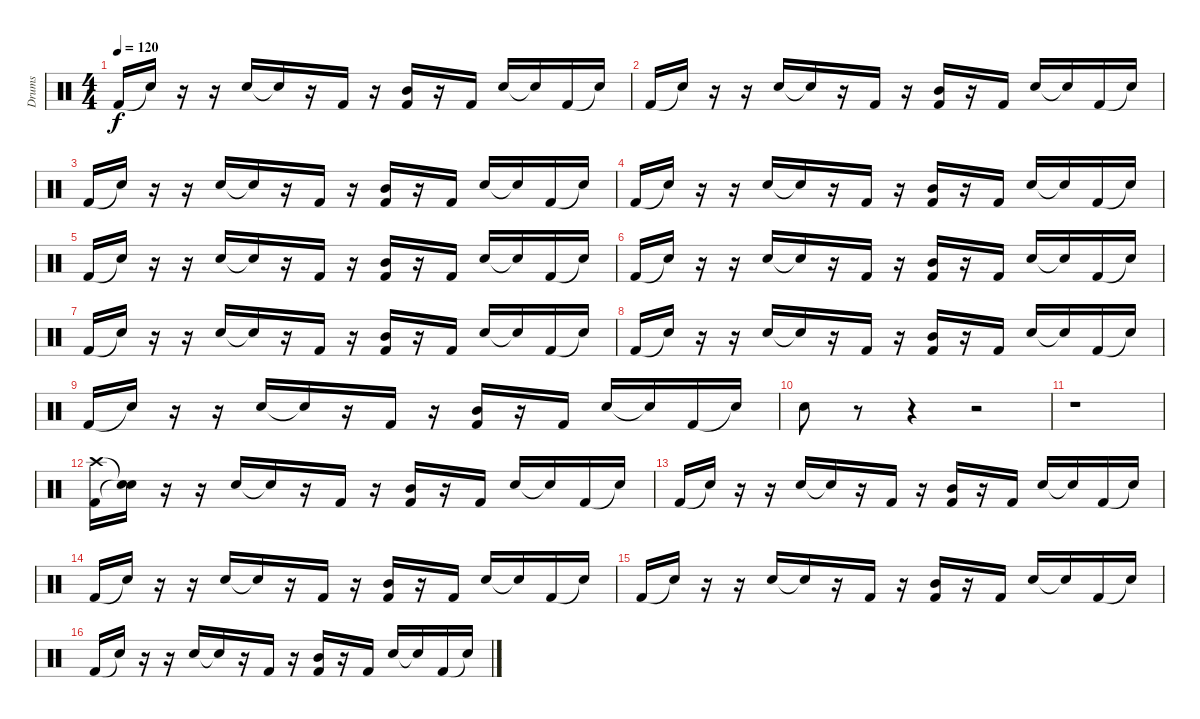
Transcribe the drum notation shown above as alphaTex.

\track ("Drums" "Drums") {instrument percussion}
\staff {score}
\articulation defaults
\ts (4 4)
\tempo 120
\clef neutral
\ks c "Kick (hit) 2".16{dy f} "Snare (hit)"{t}.16
r.16 r.16 "Snare (hit) 2".16 "Snare (hit)"{t}.16 r.16 "Kick (hit) 2".16 r.16 ("Mid Tom (hit)" "Kick (hit) 2").16 r.16 "Kick (hit) 2".16 "Snare (hit) 2".16 "Snare (hit)"{t}.16 "Kick (hit) 2".16 "Snare (hit)"{t}.16 |
"Kick (hit) 2".16 "Snare (hit)"{t}.16 r.16 r.16 "Snare (hit) 2".16 "Snare (hit)"{t}.16 r.16 "Kick (hit) 2".16 r.16 ("Mid Tom (hit)" "Kick (hit) 2").16 r.16 "Kick (hit) 2".16 "Snare (hit) 2".16 "Snare (hit)"{t}.16 "Kick (hit) 2".16 "Snare (hit)"{t}.16 |
"Kick (hit) 2".16 "Snare (hit)"{t}.16 r.16 r.16 "Snare (hit) 2".16 "Snare (hit)"{t}.16 r.16 "Kick (hit) 2".16 r.16 ("Mid Tom (hit)" "Kick (hit) 2").16 r.16 "Kick (hit) 2".16 "Snare (hit) 2".16 "Snare (hit)"{t}.16 "Kick (hit) 2".16 "Snare (hit)"{t}.16 |
"Kick (hit) 2".16 "Snare (hit)"{t}.16 r.16 r.16 "Snare (hit) 2".16 "Snare (hit)"{t}.16 r.16 "Kick (hit) 2".16 r.16 ("Mid Tom (hit)" "Kick (hit) 2").16 r.16 "Kick (hit) 2".16 "Snare (hit) 2".16 "Snare (hit)"{t}.16 "Kick (hit) 2".16 "Snare (hit)"{t}.16 |
"Kick (hit) 2".16 "Snare (hit)"{t}.16 r.16 r.16 "Snare (hit) 2".16 "Snare (hit)"{t}.16 r.16 "Kick (hit) 2".16 r.16 ("Mid Tom (hit)" "Kick (hit) 2").16 r.16 "Kick (hit) 2".16 "Snare (hit) 2".16 "Snare (hit)"{t}.16 "Kick (hit) 2".16 "Snare (hit)"{t}.16 |
"Kick (hit) 2".16 "Snare (hit)"{t}.16 r.16 r.16 "Snare (hit) 2".16 "Snare (hit)"{t}.16 r.16 "Kick (hit) 2".16 r.16 ("Mid Tom (hit)" "Kick (hit) 2").16 r.16 "Kick (hit) 2".16 "Snare (hit) 2".16 "Snare (hit)"{t}.16 "Kick (hit) 2".16 "Snare (hit)"{t}.16 |
"Kick (hit) 2".16 "Snare (hit)"{t}.16 r.16 r.16 "Snare (hit) 2".16 "Snare (hit)"{t}.16 r.16 "Kick (hit) 2".16 r.16 ("Mid Tom (hit)" "Kick (hit) 2").16 r.16 "Kick (hit) 2".16 "Snare (hit) 2".16 "Snare (hit)"{t}.16 "Kick (hit) 2".16 "Snare (hit)"{t}.16 |
"Kick (hit) 2".16 "Snare (hit)"{t}.16 r.16 r.16 "Snare (hit) 2".16 "Snare (hit)"{t}.16 r.16 "Kick (hit) 2".16 r.16 ("Mid Tom (hit)" "Kick (hit) 2").16 r.16 "Kick (hit) 2".16 "Snare (hit) 2".16 "Snare (hit)"{t}.16 "Kick (hit) 2".16 "Snare (hit)"{t}.16 |
"Kick (hit) 2".16 "Snare (hit)"{t}.16 r.16 r.16 "Snare (hit) 2".16 "Snare (hit)"{t}.16 r.16 "Kick (hit) 2".16 r.16 ("Mid Tom (hit)" "Kick (hit) 2").16 r.16 "Kick (hit) 2".16 "Snare (hit) 2".16 "Snare (hit)"{t}.16 "Kick (hit) 2".16 "Snare (hit)"{t}.16 |
"Snare (hit) 2".8 r.8 r.4 r.2 |
r.1 |
("Crash high (hit)" "Kick (hit) 2").16 ("Snare (hit)"{t} "Snare (hit)"{t}).16 r.16 r.16 "Snare (hit) 2".16 "Snare (hit)"{t}.16 r.16 "Kick (hit) 2".16 r.16 ("Mid Tom (hit)" "Kick (hit) 2").16 r.16 "Kick (hit) 2".16 "Snare (hit) 2".16 "Snare (hit)"{t}.16 "Kick (hit) 2".16 "Snare (hit)"{t}.16 |
"Kick (hit) 2".16 "Snare (hit)"{t}.16 r.16 r.16 "Snare (hit) 2".16 "Snare (hit)"{t}.16 r.16 "Kick (hit) 2".16 r.16 ("Mid Tom (hit)" "Kick (hit) 2").16 r.16 "Kick (hit) 2".16 "Snare (hit) 2".16 "Snare (hit)"{t}.16 "Kick (hit) 2".16 "Snare (hit)"{t}.16 |
"Kick (hit) 2".16 "Snare (hit)"{t}.16 r.16 r.16 "Snare (hit) 2".16 "Snare (hit)"{t}.16 r.16 "Kick (hit) 2".16 r.16 ("Mid Tom (hit)" "Kick (hit) 2").16 r.16 "Kick (hit) 2".16 "Snare (hit) 2".16 "Snare (hit)"{t}.16 "Kick (hit) 2".16 "Snare (hit)"{t}.16 |
"Kick (hit) 2".16 "Snare (hit)"{t}.16 r.16 r.16 "Snare (hit) 2".16 "Snare (hit)"{t}.16 r.16 "Kick (hit) 2".16 r.16 ("Mid Tom (hit)" "Kick (hit) 2").16 r.16 "Kick (hit) 2".16 "Snare (hit) 2".16 "Snare (hit)"{t}.16 "Kick (hit) 2".16 "Snare (hit)"{t}.16 |
"Kick (hit) 2".16 "Snare (hit)"{t}.16 r.16 r.16 "Snare (hit) 2".16 "Snare (hit)"{t}.16 r.16 "Kick (hit) 2".16 r.16 ("Mid Tom (hit)" "Kick (hit) 2").16 r.16 "Kick (hit) 2".16 "Snare (hit) 2".16 "Snare (hit)"{t}.16 "Kick (hit) 2".16 "Snare (hit)"{t}.16
